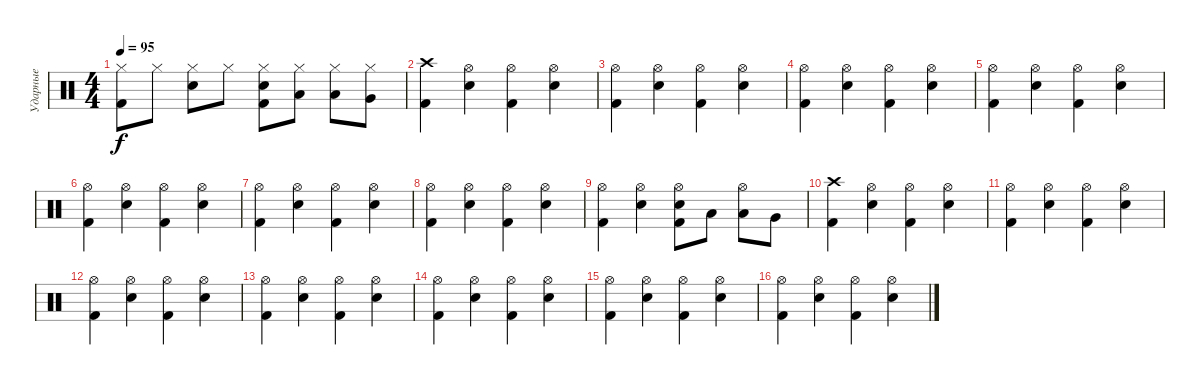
\track ("Ударные" "Ударные") {instrument percussion}
\staff {score}
\articulation defaults
\ts (4 4)
\tempo 95
\clef neutral
\ks c
("Hi-Hat (closed)" "Kick (hit) 2").8{dy f} "Hi-Hat (closed)".8 ("Hi-Hat (closed)" "Snare (hit) 2").8 "Hi-Hat (closed)".8 ("Hi-Hat (closed)" "Snare (hit) 2" "Kick (hit) 2").8 ("Hi-Hat (closed)" "Low Floor Tom (hit)").8 ("Hi-Hat (closed)" "Low Floor Tom (hit)").8 ("Hi-Hat (closed)" "Very Low Tom (hit)").8 |
("Crash high (hit)" "Kick (hit) 2").4 ("Hi-Hat (open)" "Snare (hit) 2").4 ("Hi-Hat (open)" "Kick (hit) 2").4 ("Hi-Hat (open)" "Snare (hit) 2").4 |
("Hi-Hat (open)" "Kick (hit) 2").4 ("Hi-Hat (open)" "Snare (hit) 2").4 ("Hi-Hat (open)" "Kick (hit) 2").4 ("Hi-Hat (open)" "Snare (hit) 2").4 |
("Hi-Hat (open)" "Kick (hit) 2").4 ("Hi-Hat (open)" "Snare (hit) 2").4 ("Hi-Hat (open)" "Kick (hit) 2").4 ("Hi-Hat (open)" "Snare (hit) 2").4 |
("Hi-Hat (open)" "Kick (hit) 2").4 ("Hi-Hat (open)" "Snare (hit) 2").4 ("Hi-Hat (open)" "Kick (hit) 2").4 ("Hi-Hat (open)" "Snare (hit) 2").4 |
("Hi-Hat (open)" "Kick (hit) 2").4 ("Hi-Hat (open)" "Snare (hit) 2").4 ("Hi-Hat (open)" "Kick (hit) 2").4 ("Hi-Hat (open)" "Snare (hit) 2").4 |
("Hi-Hat (open)" "Kick (hit) 2").4 ("Hi-Hat (open)" "Snare (hit) 2").4 ("Hi-Hat (open)" "Kick (hit) 2").4 ("Hi-Hat (open)" "Snare (hit) 2").4 |
("Hi-Hat (open)" "Kick (hit) 2").4 ("Hi-Hat (open)" "Snare (hit) 2").4 ("Hi-Hat (open)" "Kick (hit) 2").4 ("Hi-Hat (open)" "Snare (hit) 2").4 |
("Hi-Hat (open)" "Kick (hit) 2").4 ("Hi-Hat (open)" "Snare (hit) 2").4 ("Hi-Hat (open)" "Snare (hit) 2" "Kick (hit) 2").8 "Low Floor Tom (hit)".8 ("Hi-Hat (open)" "Low Floor Tom (hit)").8 "Very Low Tom (hit)".8 |
("Crash high (hit)" "Kick (hit) 2").4 ("Hi-Hat (open)" "Snare (hit) 2").4 ("Hi-Hat (open)" "Kick (hit) 2").4 ("Hi-Hat (open)" "Snare (hit) 2").4 |
("Hi-Hat (open)" "Kick (hit) 2").4 ("Hi-Hat (open)" "Snare (hit) 2").4 ("Hi-Hat (open)" "Kick (hit) 2").4 ("Hi-Hat (open)" "Snare (hit) 2").4 |
("Hi-Hat (open)" "Kick (hit) 2").4 ("Hi-Hat (open)" "Snare (hit) 2").4 ("Hi-Hat (open)" "Kick (hit) 2").4 ("Hi-Hat (open)" "Snare (hit) 2").4 |
("Hi-Hat (open)" "Kick (hit) 2").4 ("Hi-Hat (open)" "Snare (hit) 2").4 ("Hi-Hat (open)" "Kick (hit) 2").4 ("Hi-Hat (open)" "Snare (hit) 2").4 |
("Hi-Hat (open)" "Kick (hit) 2").4 ("Hi-Hat (open)" "Snare (hit) 2").4 ("Hi-Hat (open)" "Kick (hit) 2").4 ("Hi-Hat (open)" "Snare (hit) 2").4 |
("Hi-Hat (open)" "Kick (hit) 2").4 ("Hi-Hat (open)" "Snare (hit) 2").4 ("Hi-Hat (open)" "Kick (hit) 2").4 ("Hi-Hat (open)" "Snare (hit) 2").4 |
("Hi-Hat (open)" "Kick (hit) 2").4 ("Hi-Hat (open)" "Snare (hit) 2").4 ("Hi-Hat (open)" "Kick (hit) 2").4 ("Hi-Hat (open)" "Snare (hit) 2").4
